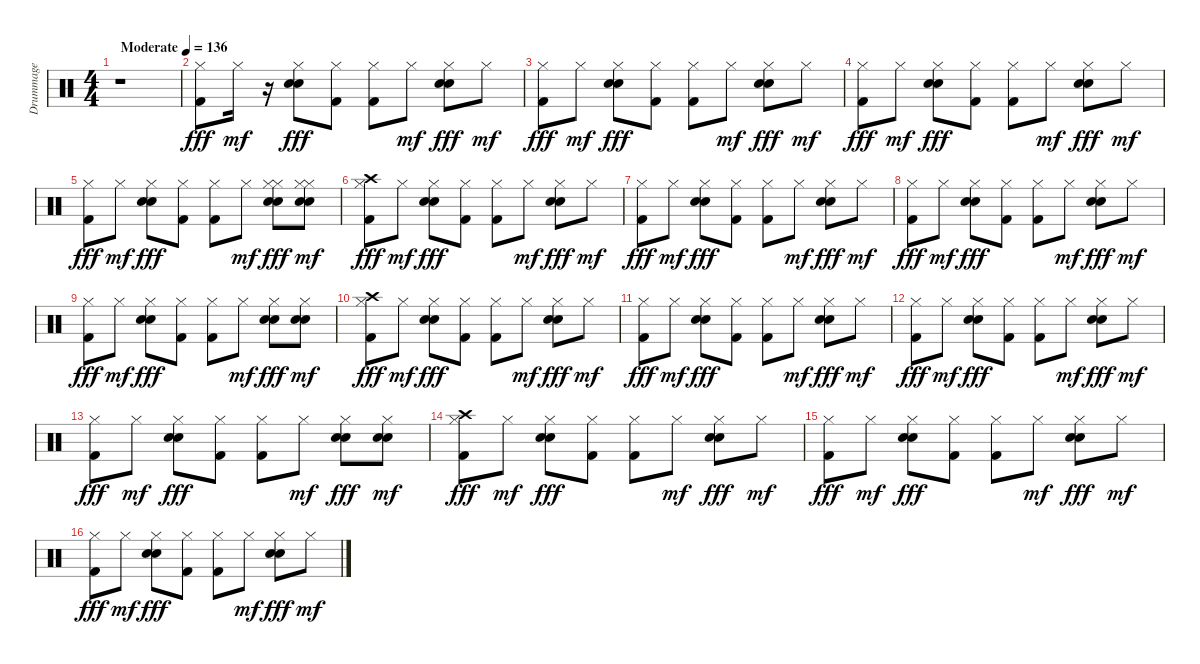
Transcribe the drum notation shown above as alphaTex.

\track ("Drummage" "Drummage") {instrument percussion}
\staff {score}
\articulation defaults
\ts (4 4)
\tempo (136 "Moderate")
\clef neutral
\ks c
r.1{dy fff} |
("Hi-Hat (closed)" "Kick (hit) 2").8 "Hi-Hat (closed)".16{dy mf} r.16 ("Hi-Hat (closed)" "Snare (hit) 2" "Electric Snare (hit)").8{dy fff} ("Hi-Hat (closed)" "Kick (hit) 2").8 ("Hi-Hat (closed)" "Kick (hit) 2").8 "Hi-Hat (closed)".8{dy mf} ("Snare (hit) 2" "Hi-Hat (closed)" "Electric Snare (hit)").8{dy fff} "Hi-Hat (closed)".8{dy mf} |
("Hi-Hat (closed)" "Kick (hit) 2").8{dy fff} "Hi-Hat (closed)".8{dy mf} ("Hi-Hat (closed)" "Snare (hit) 2" "Electric Snare (hit)").8{dy fff} ("Hi-Hat (closed)" "Kick (hit) 2").8 ("Hi-Hat (closed)" "Kick (hit) 2").8 "Hi-Hat (closed)".8{dy mf} ("Hi-Hat (closed)" "Electric Snare (hit)" "Snare (hit) 2").8{dy fff} "Hi-Hat (closed)".8{dy mf} |
("Hi-Hat (closed)" "Kick (hit) 2").8{dy fff} "Hi-Hat (closed)".8{dy mf} ("Hi-Hat (closed)" "Snare (hit) 2" "Electric Snare (hit)").8{dy fff} ("Hi-Hat (closed)" "Kick (hit) 2").8 ("Hi-Hat (closed)" "Kick (hit) 2").8 "Hi-Hat (closed)".8{dy mf} ("Hi-Hat (closed)" "Electric Snare (hit)" "Snare (hit) 2").8{dy fff} "Hi-Hat (closed)".8{dy mf} |
("Hi-Hat (closed)" "Kick (hit) 2").8{dy fff} "Hi-Hat (closed)".8{dy mf} ("Hi-Hat (closed)" "Snare (hit) 2" "Electric Snare (hit)").8{dy fff} ("Hi-Hat (closed)" "Kick (hit) 2").8 ("Hi-Hat (closed)" "Kick (hit) 2").8 "Hi-Hat (closed)".8{dy mf} ("Hi-Hat (closed)" "Hi-Hat (closed)" "Electric Snare (hit)" "Snare (hit) 2").8{dy fff} ("Hi-Hat (closed)" "Snare (hit) 2" "Electric Snare (hit)" "Hi-Hat (closed)").8{dy mf} |
("Crash high (hit)" "Hi-Hat (closed)" "Kick (hit) 2").8{dy fff} "Hi-Hat (closed)".8{dy mf} ("Hi-Hat (closed)" "Snare (hit) 2" "Electric Snare (hit)").8{dy fff} ("Hi-Hat (closed)" "Kick (hit) 2").8 ("Hi-Hat (closed)" "Kick (hit) 2").8 "Hi-Hat (closed)".8{dy mf} ("Hi-Hat (closed)" "Electric Snare (hit)" "Snare (hit) 2").8{dy fff} "Hi-Hat (closed)".8{dy mf} |
("Hi-Hat (closed)" "Kick (hit) 2").8{dy fff} "Hi-Hat (closed)".8{dy mf} ("Hi-Hat (closed)" "Snare (hit) 2" "Electric Snare (hit)").8{dy fff} ("Hi-Hat (closed)" "Kick (hit) 2").8 ("Hi-Hat (closed)" "Kick (hit) 2").8 "Hi-Hat (closed)".8{dy mf} ("Hi-Hat (closed)" "Electric Snare (hit)" "Snare (hit) 2").8{dy fff} "Hi-Hat (closed)".8{dy mf} |
("Hi-Hat (closed)" "Kick (hit) 2").8{dy fff} "Hi-Hat (closed)".8{dy mf} ("Hi-Hat (closed)" "Snare (hit) 2" "Electric Snare (hit)").8{dy fff} ("Hi-Hat (closed)" "Kick (hit) 2").8 ("Hi-Hat (closed)" "Kick (hit) 2").8 "Hi-Hat (closed)".8{dy mf} ("Hi-Hat (closed)" "Electric Snare (hit)" "Snare (hit) 2").8{dy fff} "Hi-Hat (closed)".8{dy mf} |
("Hi-Hat (closed)" "Kick (hit) 2").8{dy fff} "Hi-Hat (closed)".8{dy mf} ("Hi-Hat (closed)" "Snare (hit) 2" "Electric Snare (hit)").8{dy fff} ("Hi-Hat (closed)" "Kick (hit) 2").8 ("Hi-Hat (closed)" "Kick (hit) 2").8 "Hi-Hat (closed)".8{dy mf} ("Hi-Hat (closed)" "Electric Snare (hit)" "Snare (hit) 2").8{dy fff} ("Snare (hit) 2" "Electric Snare (hit)" "Hi-Hat (closed)").8{dy mf} |
("Crash high (hit)" "Hi-Hat (closed)" "Kick (hit) 2").8{dy fff} "Hi-Hat (closed)".8{dy mf} ("Hi-Hat (closed)" "Snare (hit) 2" "Electric Snare (hit)").8{dy fff} ("Hi-Hat (closed)" "Kick (hit) 2").8 ("Hi-Hat (closed)" "Kick (hit) 2").8 "Hi-Hat (closed)".8{dy mf} ("Hi-Hat (closed)" "Electric Snare (hit)" "Snare (hit) 2").8{dy fff} "Hi-Hat (closed)".8{dy mf} |
("Hi-Hat (closed)" "Kick (hit) 2").8{dy fff} "Hi-Hat (closed)".8{dy mf} ("Hi-Hat (closed)" "Snare (hit) 2" "Electric Snare (hit)").8{dy fff} ("Hi-Hat (closed)" "Kick (hit) 2").8 ("Hi-Hat (closed)" "Kick (hit) 2").8 "Hi-Hat (closed)".8{dy mf} ("Hi-Hat (closed)" "Electric Snare (hit)" "Snare (hit) 2").8{dy fff} "Hi-Hat (closed)".8{dy mf} |
("Hi-Hat (closed)" "Kick (hit) 2").8{dy fff} "Hi-Hat (closed)".8{dy mf} ("Hi-Hat (closed)" "Snare (hit) 2" "Electric Snare (hit)").8{dy fff} ("Hi-Hat (closed)" "Kick (hit) 2").8 ("Hi-Hat (closed)" "Kick (hit) 2").8 "Hi-Hat (closed)".8{dy mf} ("Hi-Hat (closed)" "Electric Snare (hit)" "Snare (hit) 2").8{dy fff} "Hi-Hat (closed)".8{dy mf} |
("Hi-Hat (closed)" "Kick (hit) 2").8{dy fff} "Hi-Hat (closed)".8{dy mf} ("Hi-Hat (closed)" "Snare (hit) 2" "Electric Snare (hit)").8{dy fff} ("Hi-Hat (closed)" "Kick (hit) 2").8 ("Hi-Hat (closed)" "Kick (hit) 2").8 "Hi-Hat (closed)".8{dy mf} ("Hi-Hat (closed)" "Electric Snare (hit)" "Snare (hit) 2").8{dy fff} ("Snare (hit) 2" "Electric Snare (hit)" "Hi-Hat (closed)").8{dy mf} |
("Crash high (hit)" "Hi-Hat (closed)" "Kick (hit) 2").8{dy fff} "Hi-Hat (closed)".8{dy mf} ("Hi-Hat (closed)" "Snare (hit) 2" "Electric Snare (hit)").8{dy fff} ("Hi-Hat (closed)" "Kick (hit) 2").8 ("Hi-Hat (closed)" "Kick (hit) 2").8 "Hi-Hat (closed)".8{dy mf} ("Hi-Hat (closed)" "Electric Snare (hit)" "Snare (hit) 2").8{dy fff} "Hi-Hat (closed)".8{dy mf} |
("Hi-Hat (closed)" "Kick (hit) 2").8{dy fff} "Hi-Hat (closed)".8{dy mf} ("Hi-Hat (closed)" "Snare (hit) 2" "Electric Snare (hit)").8{dy fff} ("Hi-Hat (closed)" "Kick (hit) 2").8 ("Hi-Hat (closed)" "Kick (hit) 2").8 "Hi-Hat (closed)".8{dy mf} ("Hi-Hat (closed)" "Electric Snare (hit)" "Snare (hit) 2").8{dy fff} "Hi-Hat (closed)".8{dy mf} |
("Hi-Hat (closed)" "Kick (hit) 2").8{dy fff} "Hi-Hat (closed)".8{dy mf} ("Hi-Hat (closed)" "Snare (hit) 2" "Electric Snare (hit)").8{dy fff} ("Hi-Hat (closed)" "Kick (hit) 2").8 ("Hi-Hat (closed)" "Kick (hit) 2").8 "Hi-Hat (closed)".8{dy mf} ("Hi-Hat (closed)" "Electric Snare (hit)" "Snare (hit) 2").8{dy fff} "Hi-Hat (closed)".8{dy mf}
